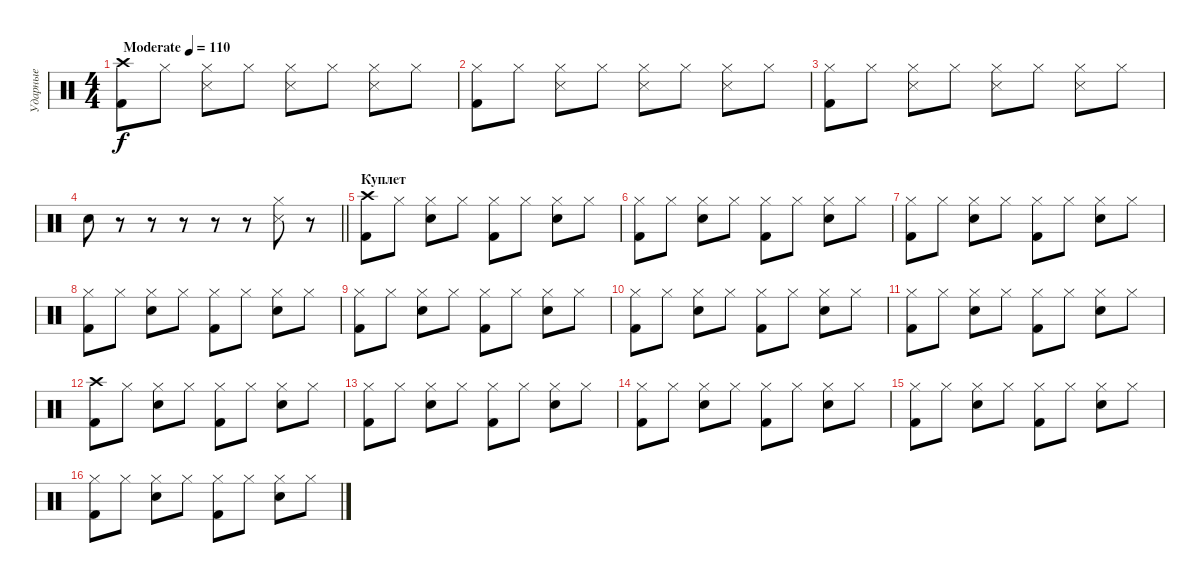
\track ("Ударные" "Ударные") {instrument percussion}
\staff {score}
\articulation defaults
\ts (4 4)
\tempo (110 "Moderate")
\clef neutral
\ks c
("Kick (hit) 2" "Crash high (hit)").8{dy f} "Hi-Hat (closed)".8 ("Snare (side stick) 3" "Hi-Hat (closed)").8 "Hi-Hat (closed)".8 ("Snare (side stick) 3" "Hi-Hat (closed)").8 "Hi-Hat (closed)".8 ("Snare (side stick) 3" "Hi-Hat (closed)").8 "Hi-Hat (closed)".8 |
("Kick (hit) 2" "Hi-Hat (closed)").8 "Hi-Hat (closed)".8 ("Snare (side stick) 3" "Hi-Hat (closed)").8 "Hi-Hat (closed)".8 ("Snare (side stick) 3" "Hi-Hat (closed)").8 "Hi-Hat (closed)".8 ("Snare (side stick) 3" "Hi-Hat (closed)").8 "Hi-Hat (closed)".8 |
("Kick (hit) 2" "Hi-Hat (closed)").8 "Hi-Hat (closed)".8 ("Snare (side stick) 3" "Hi-Hat (closed)").8 "Hi-Hat (closed)".8 ("Snare (side stick) 3" "Hi-Hat (closed)").8 "Hi-Hat (closed)".8 ("Snare (side stick) 3" "Hi-Hat (closed)").8 "Hi-Hat (closed)".8 |
\barLineRight lightlight "Snare (hit) 2".8
r.8 r.8 r.8 r.8 r.8 ("Hi-Hat (closed)" "Snare (side stick) 3").8 r.8 |
\section ("" "Куплет")
("Kick (hit) 2" "Crash high (hit)").8 "Hi-Hat (closed)".8 ("Snare (hit) 2" "Hi-Hat (closed)").8 "Hi-Hat (closed)".8 ("Kick (hit) 2" "Hi-Hat (closed)").8 "Hi-Hat (closed)".8 ("Snare (hit) 2" "Hi-Hat (closed)").8 "Hi-Hat (closed)".8 |
("Kick (hit) 2" "Hi-Hat (closed)").8 "Hi-Hat (closed)".8 ("Snare (hit) 2" "Hi-Hat (closed)").8 "Hi-Hat (closed)".8 ("Kick (hit) 2" "Hi-Hat (closed)").8 "Hi-Hat (closed)".8 ("Snare (hit) 2" "Hi-Hat (closed)").8 "Hi-Hat (closed)".8 |
("Kick (hit) 2" "Hi-Hat (closed)").8 "Hi-Hat (closed)".8 ("Snare (hit) 2" "Hi-Hat (closed)").8 "Hi-Hat (closed)".8 ("Kick (hit) 2" "Hi-Hat (closed)").8 "Hi-Hat (closed)".8 ("Snare (hit) 2" "Hi-Hat (closed)").8 "Hi-Hat (closed)".8 |
("Kick (hit) 2" "Hi-Hat (closed)").8 "Hi-Hat (closed)".8 ("Snare (hit) 2" "Hi-Hat (closed)").8 "Hi-Hat (closed)".8 ("Kick (hit) 2" "Hi-Hat (closed)").8 "Hi-Hat (closed)".8 ("Snare (hit) 2" "Hi-Hat (closed)").8 "Hi-Hat (closed)".8 |
("Kick (hit) 2" "Hi-Hat (closed)").8 "Hi-Hat (closed)".8 ("Snare (hit) 2" "Hi-Hat (closed)").8 "Hi-Hat (closed)".8 ("Kick (hit) 2" "Hi-Hat (closed)").8 "Hi-Hat (closed)".8 ("Snare (hit) 2" "Hi-Hat (closed)").8 "Hi-Hat (closed)".8 |
("Kick (hit) 2" "Hi-Hat (closed)").8 "Hi-Hat (closed)".8 ("Snare (hit) 2" "Hi-Hat (closed)").8 "Hi-Hat (closed)".8 ("Kick (hit) 2" "Hi-Hat (closed)").8 "Hi-Hat (closed)".8 ("Snare (hit) 2" "Hi-Hat (closed)").8 "Hi-Hat (closed)".8 |
("Kick (hit) 2" "Hi-Hat (closed)").8 "Hi-Hat (closed)".8 ("Snare (hit) 2" "Hi-Hat (closed)").8 "Hi-Hat (closed)".8 ("Kick (hit) 2" "Hi-Hat (closed)").8 "Hi-Hat (closed)".8 ("Snare (hit) 2" "Hi-Hat (closed)").8 "Hi-Hat (closed)".8 |
("Kick (hit) 2" "Crash high (hit)").8 "Hi-Hat (closed)".8 ("Snare (hit) 2" "Hi-Hat (closed)").8 "Hi-Hat (closed)".8 ("Kick (hit) 2" "Hi-Hat (closed)").8 "Hi-Hat (closed)".8 ("Snare (hit) 2" "Hi-Hat (closed)").8 "Hi-Hat (closed)".8 |
("Kick (hit) 2" "Hi-Hat (closed)").8 "Hi-Hat (closed)".8 ("Snare (hit) 2" "Hi-Hat (closed)").8 "Hi-Hat (closed)".8 ("Kick (hit) 2" "Hi-Hat (closed)").8 "Hi-Hat (closed)".8 ("Snare (hit) 2" "Hi-Hat (closed)").8 "Hi-Hat (closed)".8 |
("Kick (hit) 2" "Hi-Hat (closed)").8 "Hi-Hat (closed)".8 ("Snare (hit) 2" "Hi-Hat (closed)").8 "Hi-Hat (closed)".8 ("Kick (hit) 2" "Hi-Hat (closed)").8 "Hi-Hat (closed)".8 ("Snare (hit) 2" "Hi-Hat (closed)").8 "Hi-Hat (closed)".8 |
("Kick (hit) 2" "Hi-Hat (closed)").8 "Hi-Hat (closed)".8 ("Snare (hit) 2" "Hi-Hat (closed)").8 "Hi-Hat (closed)".8 ("Kick (hit) 2" "Hi-Hat (closed)").8 "Hi-Hat (closed)".8 ("Snare (hit) 2" "Hi-Hat (closed)").8 "Hi-Hat (closed)".8 |
("Kick (hit) 2" "Hi-Hat (closed)").8 "Hi-Hat (closed)".8 ("Snare (hit) 2" "Hi-Hat (closed)").8 "Hi-Hat (closed)".8 ("Kick (hit) 2" "Hi-Hat (closed)").8 "Hi-Hat (closed)".8 ("Snare (hit) 2" "Hi-Hat (closed)").8 "Hi-Hat (closed)".8
